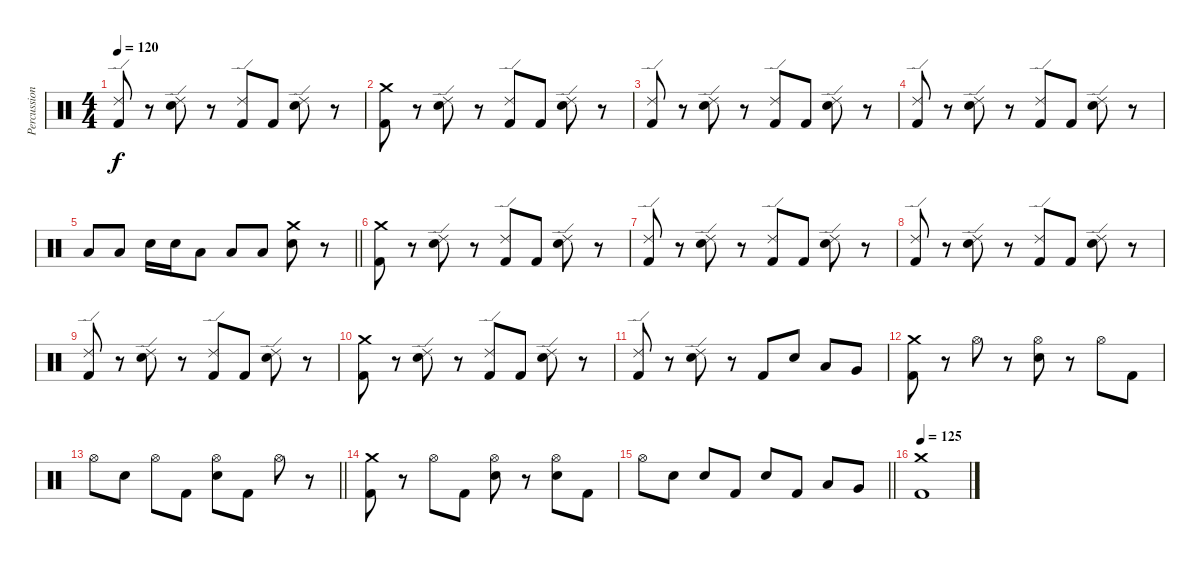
\track ("Percussion" "Percussion") {instrument percussion}
\staff {score}
\articulation defaults
\ts (4 4)
\tempo 120
\clef neutral
\ks c
("Ride (edge) 2" "Kick (hit) 2").8{dy f} r.8 ("Ride (edge) 2" "Electric Snare (hit)").8 r.8 ("Ride (edge) 2" "Kick (hit) 2").8 "Kick (hit) 2".8 ("Ride (edge) 2" "Electric Snare (hit)").8 r.8 |
("Crash medium (hit)" "Kick (hit) 2").8 r.8 ("Ride (edge) 2" "Electric Snare (hit)").8 r.8 ("Ride (edge) 2" "Kick (hit) 2").8 "Kick (hit) 2".8 ("Ride (edge) 2" "Electric Snare (hit)").8 r.8 |
("Ride (edge) 2" "Kick (hit) 2").8 r.8 ("Ride (edge) 2" "Electric Snare (hit)").8 r.8 ("Ride (edge) 2" "Kick (hit) 2").8 "Kick (hit) 2".8 ("Ride (edge) 2" "Electric Snare (hit)").8 r.8 |
("Ride (edge) 2" "Kick (hit) 2").8 r.8 ("Ride (edge) 2" "Electric Snare (hit)").8 r.8 ("Ride (edge) 2" "Kick (hit) 2").8 "Kick (hit) 2".8 ("Ride (edge) 2" "Electric Snare (hit)").8 r.8 |
\barLineRight lightlight "Low Tom (hit)".8 "Low Tom (hit)".8 "Electric Snare (hit)".16 "Electric Snare (hit)".16 "Low Tom (hit)".8 "Low Tom (hit)".8 "Low Tom (hit)".8
("Crash medium (hit)" "Electric Snare (hit)").8 r.8 |
("Crash medium (hit)" "Kick (hit) 2").8 r.8 ("Ride (edge) 2" "Electric Snare (hit)").8 r.8 ("Ride (edge) 2" "Kick (hit) 2").8 "Kick (hit) 2".8 ("Ride (edge) 2" "Electric Snare (hit)").8 r.8 |
("Ride (edge) 2" "Kick (hit) 2").8 r.8 ("Ride (edge) 2" "Electric Snare (hit)").8 r.8 ("Ride (edge) 2" "Kick (hit) 2").8 "Kick (hit) 2".8 ("Ride (edge) 2" "Electric Snare (hit)").8 r.8 |
("Ride (edge) 2" "Kick (hit) 2").8 r.8 ("Ride (edge) 2" "Electric Snare (hit)").8 r.8 ("Ride (edge) 2" "Kick (hit) 2").8 "Kick (hit) 2".8 ("Ride (edge) 2" "Electric Snare (hit)").8 r.8 |
("Ride (edge) 2" "Kick (hit) 2").8 r.8 ("Ride (edge) 2" "Electric Snare (hit)").8 r.8 ("Ride (edge) 2" "Kick (hit) 2").8 "Kick (hit) 2".8 ("Ride (edge) 2" "Electric Snare (hit)").8 r.8 |
("Crash medium (hit)" "Kick (hit) 2").8 r.8 ("Ride (edge) 2" "Electric Snare (hit)").8 r.8 ("Ride (edge) 2" "Kick (hit) 2").8 "Kick (hit) 2".8 ("Ride (edge) 2" "Electric Snare (hit)").8 r.8 |
("Ride (edge) 2" "Kick (hit) 2").8 r.8 ("Ride (edge) 2" "Electric Snare (hit)").8 r.8 "Kick (hit) 2".8 "Electric Snare (hit)".8 "Low Tom (hit)".8 "Very Low Tom (hit)".8 |
("Crash medium (hit)" "Kick (hit) 2").8 r.8 "Hi-Hat (open)".8 r.8 ("Hi-Hat (open)" "Electric Snare (hit)").8 r.8 "Hi-Hat (open)".8 "Kick (hit) 2".8 |
\barLineRight lightlight "Hi-Hat (open)".8 "Electric Snare (hit)".8 "Hi-Hat (open)".8 "Kick (hit) 2".8
("Hi-Hat (open)" "Electric Snare (hit)").8 "Kick (hit) 2".8 "Hi-Hat (open)".8 r.8 |
("Crash medium (hit)" "Kick (hit) 2").8 r.8 "Hi-Hat (open)".8 "Kick (hit) 2".8 ("Hi-Hat (open)" "Electric Snare (hit)").8 r.8 ("Hi-Hat (open)" "Electric Snare (hit)").8 "Kick (hit) 2".8 |
\barLineRight lightlight "Hi-Hat (open)".8 "Electric Snare (hit)".8 "Electric Snare (hit)".8 "Kick (hit) 2".8 "Electric Snare (hit)".8 "Kick (hit) 2".8 "Low Tom (hit)".8 "Very Low Tom (hit)".8
|
\tempo 125
("Kick (hit) 2" "Crash medium (hit)").1
